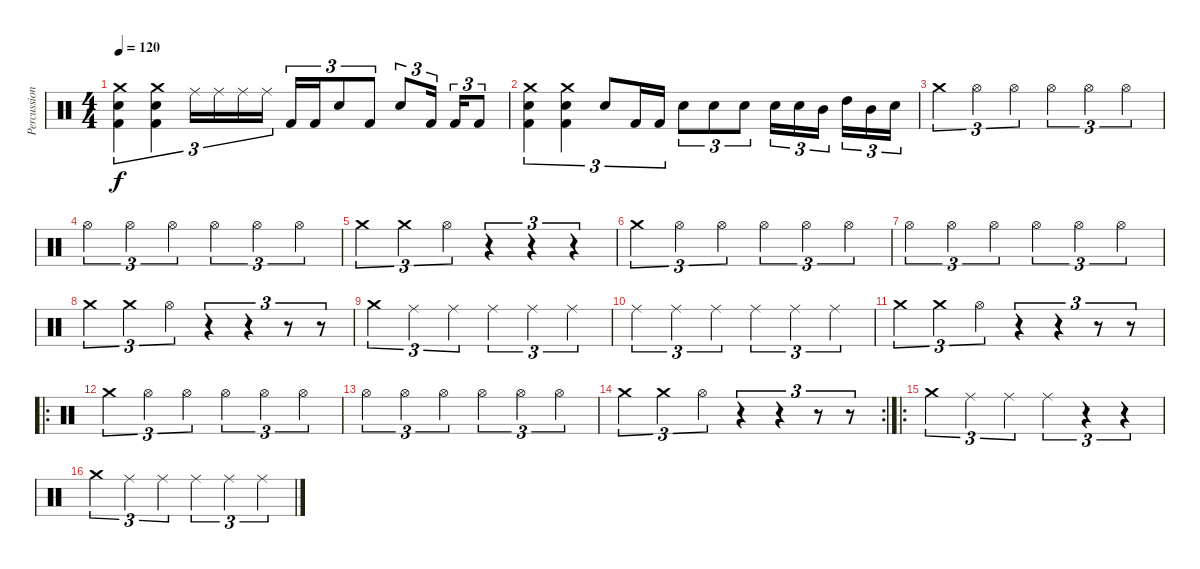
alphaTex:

\track ("Percussion" "Percussion") {instrument percussion}
\staff {score}
\articulation defaults
\ts (4 4)
\tempo 120
\clef neutral
\ks c
("Crash medium (hit)" "Electric Snare (hit)" "Kick (hit) 2").4{tu (3 2) dy f} ("Crash medium (hit)" "Electric Snare (hit)" "Kick (hit) 2").4{tu (3 2)} "Ride (middle)".16{tu (3 2)} "Ride (middle)".16{tu (3 2)} "Ride (middle)".16{tu (3 2)} "Ride (middle)".16{tu (3 2)} "Kick (hit) 2".16{tu (3 2)} "Kick (hit) 2".16{tu (3 2)} "Electric Snare (hit)".8{tu (3 2)} "Kick (hit) 2".8{tu (3 2)} "Electric Snare (hit)".8{tu (3 2)} "Kick (hit) 2".16{tu (3 2)} "Kick (hit) 2".16{tu (3 2)} "Kick (hit) 2".8{tu (3 2)} |
("Crash medium (hit)" "Electric Snare (hit)" "Kick (hit) 2").4{tu (3 2)} ("Crash medium (hit)" "Electric Snare (hit)" "Kick (hit) 2").4{tu (3 2)} "Electric Snare (hit)".8{tu (3 2)} "Kick (hit) 2".16{tu (3 2)} "Kick (hit) 2".16{tu (3 2)} "Electric Snare (hit)".8{tu (3 2)} "Electric Snare (hit)".8{tu (3 2)} "Electric Snare (hit)".8{tu (3 2)} "Electric Snare (hit)".16{tu (3 2)} "Electric Snare (hit)".16{tu (3 2)} "Mid Tom (hit)".16{tu (3 2)} "High Tom (hit)".16{tu (3 2)} "Mid Tom (hit)".16{tu (3 2)} "Electric Snare (hit)".16{tu (3 2)} |
"Crash medium (hit)".4{tu (3 2)} "Hi-Hat (open)".4{tu (3 2)} "Hi-Hat (open)".4{tu (3 2)} "Hi-Hat (open)".4{tu (3 2)} "Hi-Hat (open)".4{tu (3 2)} "Hi-Hat (open)".4{tu (3 2)} |
"Hi-Hat (open)".4{tu (3 2)} "Hi-Hat (open)".4{tu (3 2)} "Hi-Hat (open)".4{tu (3 2)} "Hi-Hat (open)".4{tu (3 2)} "Hi-Hat (open)".4{tu (3 2)} "Hi-Hat (open)".4{tu (3 2)} |
"Crash medium (hit)".4{tu (3 2)} "Crash medium (hit)".4{tu (3 2)} "Hi-Hat (open)".4{tu (3 2)} r.4{tu (3 2)} r.4{tu (3 2)} r.4{tu (3 2)} |
"Crash medium (hit)".4{tu (3 2)} "Hi-Hat (open)".4{tu (3 2)} "Hi-Hat (open)".4{tu (3 2)} "Hi-Hat (open)".4{tu (3 2)} "Hi-Hat (open)".4{tu (3 2)} "Hi-Hat (open)".4{tu (3 2)} |
"Hi-Hat (open)".4{tu (3 2)} "Hi-Hat (open)".4{tu (3 2)} "Hi-Hat (open)".4{tu (3 2)} "Hi-Hat (open)".4{tu (3 2)} "Hi-Hat (open)".4{tu (3 2)} "Hi-Hat (open)".4{tu (3 2)} |
"Crash medium (hit)".4{tu (3 2)} "Crash medium (hit)".4{tu (3 2)} "Hi-Hat (open)".4{tu (3 2)} r.4{tu (3 2)} r.4{tu (3 2)} r.8{tu (3 2)} r.8{tu (3 2)} |
"Crash medium (hit)".4{tu (3 2)} "Ride (middle)".4{tu (3 2)} "Ride (middle)".4{tu (3 2)} "Ride (middle)".4{tu (3 2)} "Ride (middle)".4{tu (3 2)} "Ride (middle)".4{tu (3 2)} |
"Ride (middle)".4{tu (3 2)} "Ride (middle)".4{tu (3 2)} "Ride (middle)".4{tu (3 2)} "Ride (middle)".4{tu (3 2)} "Ride (middle)".4{tu (3 2)} "Ride (middle)".4{tu (3 2)} |
"Crash medium (hit)".4{tu (3 2)} "Crash medium (hit)".4{tu (3 2)} "Hi-Hat (open)".4{tu (3 2)} r.4{tu (3 2)} r.4{tu (3 2)} r.8{tu (3 2)} r.8{tu (3 2)} |
\ro "Crash medium (hit)".4{tu (3 2)} "Hi-Hat (open)".4{tu (3 2)} "Hi-Hat (open)".4{tu (3 2)} "Hi-Hat (open)".4{tu (3 2)} "Hi-Hat (open)".4{tu (3 2)} "Hi-Hat (open)".4{tu (3 2)}
|
"Hi-Hat (open)".4{tu (3 2)} "Hi-Hat (open)".4{tu (3 2)} "Hi-Hat (open)".4{tu (3 2)} "Hi-Hat (open)".4{tu (3 2)} "Hi-Hat (open)".4{tu (3 2)} "Hi-Hat (open)".4{tu (3 2)} |
\rc 2 "Crash medium (hit)".4{tu (3 2)} "Crash medium (hit)".4{tu (3 2)} "Hi-Hat (open)".4{tu (3 2)}
r.4{tu (3 2)} r.4{tu (3 2)} r.8{tu (3 2)} r.8{tu (3 2)} |
\ro "Crash medium (hit)".4{tu (3 2)} "Ride (middle)".4{tu (3 2)} "Ride (middle)".4{tu (3 2)} "Ride (middle)".4{tu (3 2)}
r.4{tu (3 2)} r.4{tu (3 2)} |
"Crash medium (hit)".4{tu (3 2)} "Ride (middle)".4{tu (3 2)} "Ride (middle)".4{tu (3 2)} "Ride (middle)".4{tu (3 2)} "Ride (middle)".4{tu (3 2)} "Ride (middle)".4{tu (3 2)}
